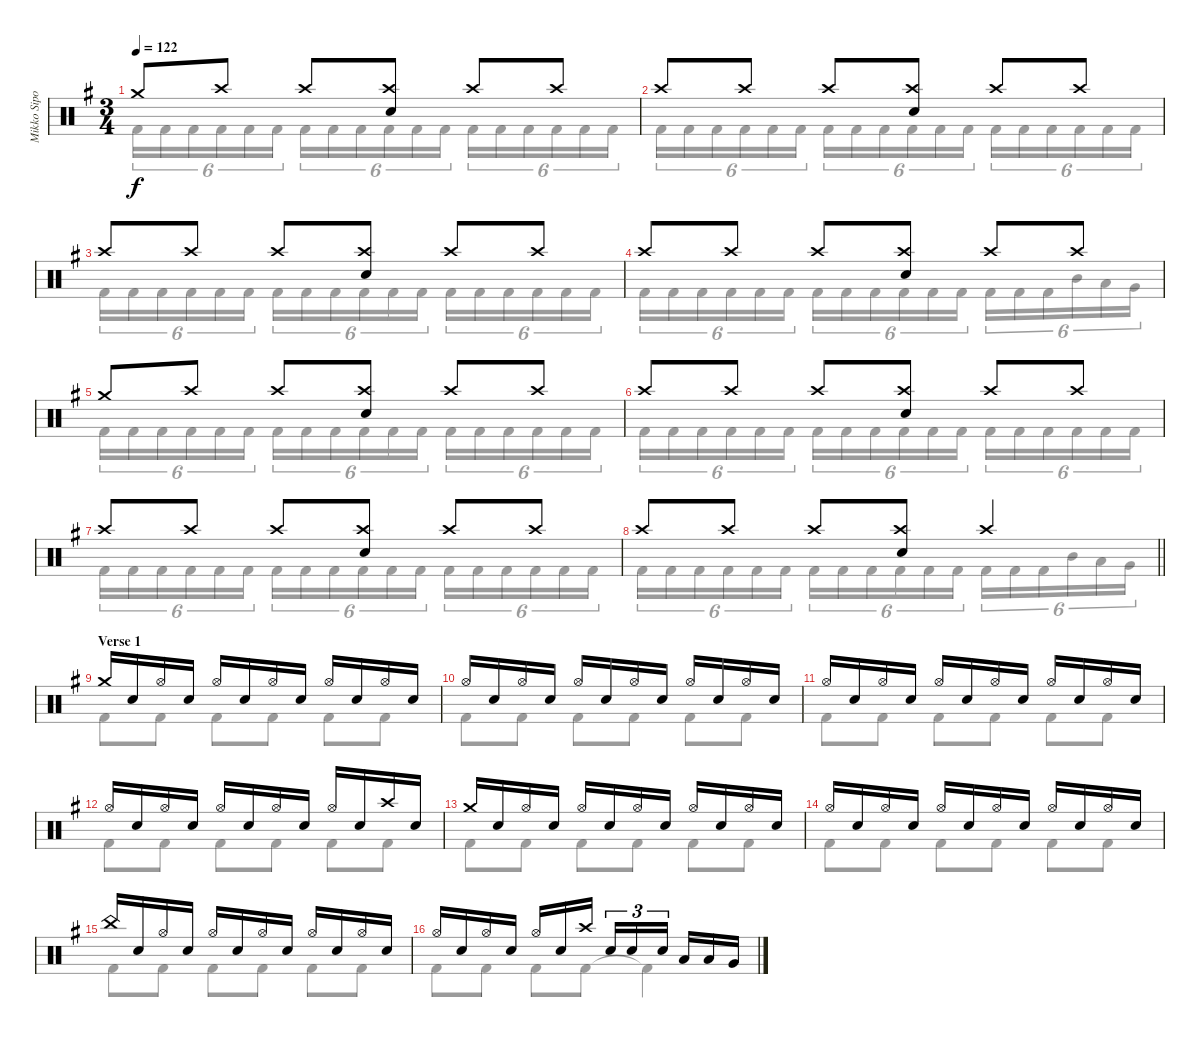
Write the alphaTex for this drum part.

\track ("Mikko Sipola - drums" "Mikko Sipo") {instrument percussion}
\staff {score}
\articulation defaults
\voice
\ts (3 4)
\tempo 122
\clef neutral
\ks eminor "Crash medium (hit)".8{dy f} "Crash high (hit)".8 "Crash high (hit)".8
("Snare (hit) 2" "Crash high (hit)").8 "Crash high (hit)".8 "Crash high (hit)".8 |
"Crash high (hit)".8 "Crash high (hit)".8 "Crash high (hit)".8 ("Snare (hit) 2" "Crash high (hit)").8 "Crash high (hit)".8 "Crash high (hit)".8 |
"Crash high (hit)".8 "Crash high (hit)".8 "Crash high (hit)".8 ("Snare (hit) 2" "Crash high (hit)").8 "Crash high (hit)".8 "Crash high (hit)".8 |
"Crash high (hit)".8 "Crash high (hit)".8 "Crash high (hit)".8 ("Snare (hit) 2" "Crash high (hit)").8 "Crash high (hit)".8 "Crash high (hit)".8 |
"Crash medium (hit)".8 "Crash high (hit)".8 "Crash high (hit)".8 ("Snare (hit) 2" "Crash high (hit)").8 "Crash high (hit)".8 "Crash high (hit)".8 |
"Crash high (hit)".8 "Crash high (hit)".8 "Crash high (hit)".8 ("Snare (hit) 2" "Crash high (hit)").8 "Crash high (hit)".8 "Crash high (hit)".8 |
"Crash high (hit)".8 "Crash high (hit)".8 "Crash high (hit)".8 ("Snare (hit) 2" "Crash high (hit)").8 "Crash high (hit)".8 "Crash high (hit)".8 |
\barLineRight lightlight "Crash high (hit)".8 "Crash high (hit)".8 "Crash high (hit)".8
("Snare (hit) 2" "Crash high (hit)").8 "Crash high (hit)".4 |
\section ("" "Verse 1")
"Crash medium (hit)".16 "Electric Snare (hit)".16 "Hi-Hat (open)".16 "Electric Snare (hit)".16 "Hi-Hat (open)".16 "Electric Snare (hit)".16 "Hi-Hat (open)".16 "Electric Snare (hit)".16 "Hi-Hat (open)".16 "Electric Snare (hit)".16 "Hi-Hat (open)".16 "Electric Snare (hit)".16 |
"Hi-Hat (open)".16 "Electric Snare (hit)".16 "Hi-Hat (open)".16 "Electric Snare (hit)".16 "Hi-Hat (open)".16 "Electric Snare (hit)".16 "Hi-Hat (open)".16 "Electric Snare (hit)".16 "Hi-Hat (open)".16 "Electric Snare (hit)".16 "Hi-Hat (open)".16 "Electric Snare (hit)".16 |
"Hi-Hat (open)".16 "Electric Snare (hit)".16 "Hi-Hat (open)".16 "Electric Snare (hit)".16 "Hi-Hat (open)".16 "Electric Snare (hit)".16 "Hi-Hat (open)".16 "Electric Snare (hit)".16 "Hi-Hat (open)".16 "Electric Snare (hit)".16 "Hi-Hat (open)".16 "Electric Snare (hit)".16 |
"Hi-Hat (open)".16 "Electric Snare (hit)".16 "Hi-Hat (open)".16 "Electric Snare (hit)".16 "Hi-Hat (open)".16 "Electric Snare (hit)".16 "Hi-Hat (open)".16 "Electric Snare (hit)".16 "Hi-Hat (open)".16 "Electric Snare (hit)".16 "Crash high (hit)".16 "Electric Snare (hit)".16 |
"Crash medium (hit)".16 "Electric Snare (hit)".16 "Hi-Hat (open)".16 "Electric Snare (hit)".16 "Hi-Hat (open)".16 "Electric Snare (hit)".16 "Hi-Hat (open)".16 "Electric Snare (hit)".16 "Hi-Hat (open)".16 "Electric Snare (hit)".16 "Hi-Hat (open)".16 "Electric Snare (hit)".16 |
"Hi-Hat (open)".16 "Electric Snare (hit)".16 "Hi-Hat (open)".16 "Electric Snare (hit)".16 "Hi-Hat (open)".16 "Electric Snare (hit)".16 "Hi-Hat (open)".16 "Electric Snare (hit)".16 "Hi-Hat (open)".16 "Electric Snare (hit)".16 "Hi-Hat (open)".16 "Electric Snare (hit)".16 |
"China (hit)".16 "Electric Snare (hit)".16 "Hi-Hat (open)".16 "Electric Snare (hit)".16 "Hi-Hat (open)".16 "Electric Snare (hit)".16 "Hi-Hat (open)".16 "Electric Snare (hit)".16 "Hi-Hat (open)".16 "Electric Snare (hit)".16 "Hi-Hat (open)".16 "Electric Snare (hit)".16 |
"Hi-Hat (open)".16 "Electric Snare (hit)".16 "Hi-Hat (open)".16 "Electric Snare (hit)".16 "Hi-Hat (open)".16 "Electric Snare (hit)".16 "Crash high (hit)".16{beam splitsecondary} "Electric Snare (hit)".16{tu (3 2)} "Electric Snare (hit)".16{tu (3 2)} "Electric Snare (hit)".16{tu (3 2) beam splitsecondary} "Low Tom (hit)".16 "Low Tom (hit)".16 "Very Low Tom (hit)".16
\voice
\clef neutral
\ottava regular
\simile none
\ks eminor "Kick (hit) 2".16{tu (6 4) dy f} "Kick (hit) 2".16{tu (6 4)} "Kick (hit) 2".16{tu (6 4)} "Kick (hit) 2".16{tu (6 4)} "Kick (hit) 2".16{tu (6 4)} "Kick (hit) 2".16{tu (6 4)} "Kick (hit) 2".16{tu (6 4)} "Kick (hit) 2".16{tu (6 4)} "Kick (hit) 2".16{tu (6 4)} "Kick (hit) 2".16{tu (6 4)} "Kick (hit) 2".16{tu (6 4)} "Kick (hit) 2".16{tu (6 4)} "Kick (hit) 2".16{tu (6 4)} "Kick (hit) 2".16{tu (6 4)} "Kick (hit) 2".16{tu (6 4)} "Kick (hit) 2".16{tu (6 4)} "Kick (hit) 2".16{tu (6 4)} "Kick (hit) 2".16{tu (6 4)}
|
"Kick (hit) 2".16{tu (6 4)} "Kick (hit) 2".16{tu (6 4)} "Kick (hit) 2".16{tu (6 4)} "Kick (hit) 2".16{tu (6 4)} "Kick (hit) 2".16{tu (6 4)} "Kick (hit) 2".16{tu (6 4)} "Kick (hit) 2".16{tu (6 4)} "Kick (hit) 2".16{tu (6 4)} "Kick (hit) 2".16{tu (6 4)} "Kick (hit) 2".16{tu (6 4)} "Kick (hit) 2".16{tu (6 4)} "Kick (hit) 2".16{tu (6 4)} "Kick (hit) 2".16{tu (6 4)} "Kick (hit) 2".16{tu (6 4)} "Kick (hit) 2".16{tu (6 4)} "Kick (hit) 2".16{tu (6 4)} "Kick (hit) 2".16{tu (6 4)} "Kick (hit) 2".16{tu (6 4)} |
"Kick (hit) 2".16{tu (6 4)} "Kick (hit) 2".16{tu (6 4)} "Kick (hit) 2".16{tu (6 4)} "Kick (hit) 2".16{tu (6 4)} "Kick (hit) 2".16{tu (6 4)} "Kick (hit) 2".16{tu (6 4)} "Kick (hit) 2".16{tu (6 4)} "Kick (hit) 2".16{tu (6 4)} "Kick (hit) 2".16{tu (6 4)} "Kick (hit) 2".16{tu (6 4)} "Kick (hit) 2".16{tu (6 4)} "Kick (hit) 2".16{tu (6 4)} "Kick (hit) 2".16{tu (6 4)} "Kick (hit) 2".16{tu (6 4)} "Kick (hit) 2".16{tu (6 4)} "Kick (hit) 2".16{tu (6 4)} "Kick (hit) 2".16{tu (6 4)} "Kick (hit) 2".16{tu (6 4)} |
"Kick (hit) 2".16{tu (6 4)} "Kick (hit) 2".16{tu (6 4)} "Kick (hit) 2".16{tu (6 4)} "Kick (hit) 2".16{tu (6 4)} "Kick (hit) 2".16{tu (6 4)} "Kick (hit) 2".16{tu (6 4)} "Kick (hit) 2".16{tu (6 4)} "Kick (hit) 2".16{tu (6 4)} "Kick (hit) 2".16{tu (6 4)} "Kick (hit) 2".16{tu (6 4)} "Kick (hit) 2".16{tu (6 4)} "Kick (hit) 2".16{tu (6 4)} "Kick (hit) 2".16{tu (6 4)} "Kick (hit) 2".16{tu (6 4)} "Kick (hit) 2".16{tu (6 4)} "Mid Tom (hit)".16{tu (6 4)} "Low Tom (hit)".16{tu (6 4)} "Very Low Tom (hit)".16{tu (6 4)} |
"Kick (hit) 2".16{tu (6 4)} "Kick (hit) 2".16{tu (6 4)} "Kick (hit) 2".16{tu (6 4)} "Kick (hit) 2".16{tu (6 4)} "Kick (hit) 2".16{tu (6 4)} "Kick (hit) 2".16{tu (6 4)} "Kick (hit) 2".16{tu (6 4)} "Kick (hit) 2".16{tu (6 4)} "Kick (hit) 2".16{tu (6 4)} "Kick (hit) 2".16{tu (6 4)} "Kick (hit) 2".16{tu (6 4)} "Kick (hit) 2".16{tu (6 4)} "Kick (hit) 2".16{tu (6 4)} "Kick (hit) 2".16{tu (6 4)} "Kick (hit) 2".16{tu (6 4)} "Kick (hit) 2".16{tu (6 4)} "Kick (hit) 2".16{tu (6 4)} "Kick (hit) 2".16{tu (6 4)} |
"Kick (hit) 2".16{tu (6 4)} "Kick (hit) 2".16{tu (6 4)} "Kick (hit) 2".16{tu (6 4)} "Kick (hit) 2".16{tu (6 4)} "Kick (hit) 2".16{tu (6 4)} "Kick (hit) 2".16{tu (6 4)} "Kick (hit) 2".16{tu (6 4)} "Kick (hit) 2".16{tu (6 4)} "Kick (hit) 2".16{tu (6 4)} "Kick (hit) 2".16{tu (6 4)} "Kick (hit) 2".16{tu (6 4)} "Kick (hit) 2".16{tu (6 4)} "Kick (hit) 2".16{tu (6 4)} "Kick (hit) 2".16{tu (6 4)} "Kick (hit) 2".16{tu (6 4)} "Kick (hit) 2".16{tu (6 4)} "Kick (hit) 2".16{tu (6 4)} "Kick (hit) 2".16{tu (6 4)} |
"Kick (hit) 2".16{tu (6 4)} "Kick (hit) 2".16{tu (6 4)} "Kick (hit) 2".16{tu (6 4)} "Kick (hit) 2".16{tu (6 4)} "Kick (hit) 2".16{tu (6 4)} "Kick (hit) 2".16{tu (6 4)} "Kick (hit) 2".16{tu (6 4)} "Kick (hit) 2".16{tu (6 4)} "Kick (hit) 2".16{tu (6 4)} "Kick (hit) 2".16{tu (6 4)} "Kick (hit) 2".16{tu (6 4)} "Kick (hit) 2".16{tu (6 4)} "Kick (hit) 2".16{tu (6 4)} "Kick (hit) 2".16{tu (6 4)} "Kick (hit) 2".16{tu (6 4)} "Kick (hit) 2".16{tu (6 4)} "Kick (hit) 2".16{tu (6 4)} "Kick (hit) 2".16{tu (6 4)} |
\barLineRight lightlight "Kick (hit) 2".16{tu (6 4)} "Kick (hit) 2".16{tu (6 4)} "Kick (hit) 2".16{tu (6 4)} "Kick (hit) 2".16{tu (6 4)} "Kick (hit) 2".16{tu (6 4)} "Kick (hit) 2".16{tu (6 4)} "Kick (hit) 2".16{tu (6 4)} "Kick (hit) 2".16{tu (6 4)} "Kick (hit) 2".16{tu (6 4)} "Kick (hit) 2".16{tu (6 4)} "Kick (hit) 2".16{tu (6 4)} "Kick (hit) 2".16{tu (6 4)} "Kick (hit) 2".16{tu (6 4)} "Kick (hit) 2".16{tu (6 4)} "Kick (hit) 2".16{tu (6 4)} "Mid Tom (hit)".16{tu (6 4)} "Low Tom (hit)".16{tu (6 4)} "Very Low Tom (hit)".16{tu (6 4)}
|
"Kick (hit) 2".8 "Kick (hit) 2".8 "Kick (hit) 2".8 "Kick (hit) 2".8 "Kick (hit) 2".8 "Kick (hit) 2".8 |
"Kick (hit) 2".8 "Kick (hit) 2".8 "Kick (hit) 2".8 "Kick (hit) 2".8 "Kick (hit) 2".8 "Kick (hit) 2".8 |
"Kick (hit) 2".8 "Kick (hit) 2".8 "Kick (hit) 2".8 "Kick (hit) 2".8 "Kick (hit) 2".8 "Kick (hit) 2".8 |
"Kick (hit) 2".8 "Kick (hit) 2".8 "Kick (hit) 2".8 "Kick (hit) 2".8 "Kick (hit) 2".8 "Kick (hit) 2".8 |
"Kick (hit) 2".8 "Kick (hit) 2".8 "Kick (hit) 2".8 "Kick (hit) 2".8 "Kick (hit) 2".8 "Kick (hit) 2".8 |
"Kick (hit) 2".8 "Kick (hit) 2".8 "Kick (hit) 2".8 "Kick (hit) 2".8 "Kick (hit) 2".8 "Kick (hit) 2".8 |
"Kick (hit) 2".8 "Kick (hit) 2".8 "Kick (hit) 2".8 "Kick (hit) 2".8 "Kick (hit) 2".8 "Kick (hit) 2".8 |
"Kick (hit) 2".8 "Kick (hit) 2".8 "Kick (hit) 2".8 "Kick (hit) 2".8 "Kick (hit) 2"{t}.4
